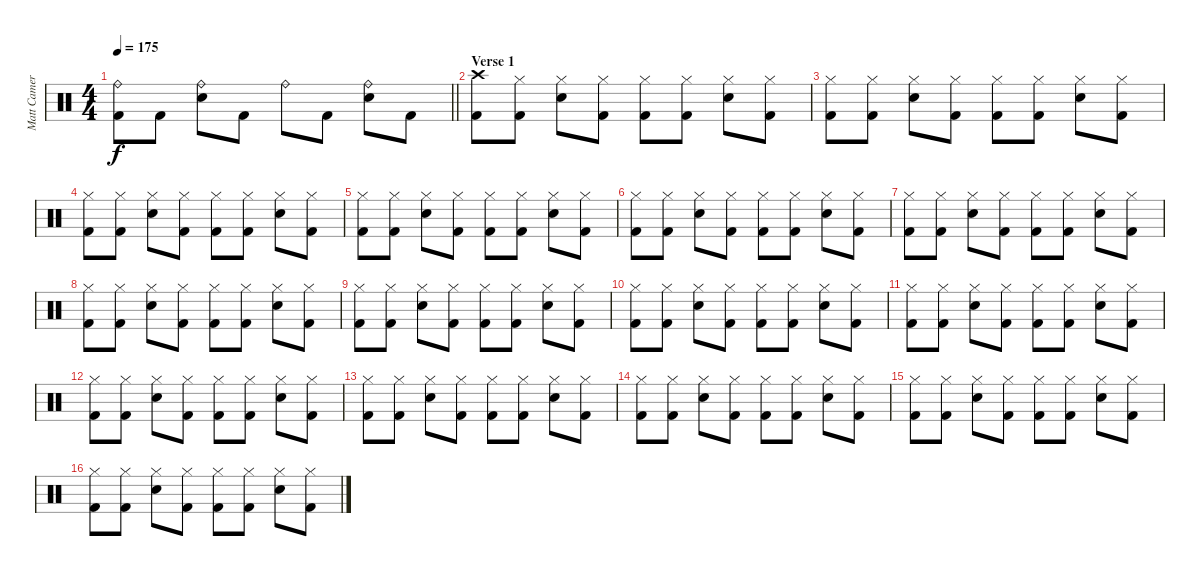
\track ("Matt Cameron" "Matt Camer") {instrument percussion}
\staff {score}
\articulation defaults
\ts (4 4)
\tempo 175
\clef neutral
\barLineRight lightlight
\ks c
("Ride (bell)" "Kick (hit) 2").8{dy f} "Kick (hit) 2".8 ("Ride (bell)" "Electric Snare (hit)").8 "Kick (hit) 2".8 "Ride (bell)".8 "Kick (hit) 2".8 ("Ride (bell)" "Electric Snare (hit)").8 "Kick (hit) 2".8 |
\section ("" "Verse 1")
("Crash high (hit)" "Kick (hit) 2").8 ("Hi-Hat (closed)" "Kick (hit) 2").8 ("Hi-Hat (closed)" "Electric Snare (hit)").8 ("Hi-Hat (closed)" "Kick (hit) 2").8 ("Hi-Hat (closed)" "Kick (hit) 2").8 ("Hi-Hat (closed)" "Kick (hit) 2").8 ("Hi-Hat (closed)" "Electric Snare (hit)").8 ("Hi-Hat (closed)" "Kick (hit) 2").8 |
("Hi-Hat (closed)" "Kick (hit) 2").8 ("Hi-Hat (closed)" "Kick (hit) 2").8 ("Hi-Hat (closed)" "Electric Snare (hit)").8 ("Hi-Hat (closed)" "Kick (hit) 2").8 ("Hi-Hat (closed)" "Kick (hit) 2").8 ("Hi-Hat (closed)" "Kick (hit) 2").8 ("Hi-Hat (closed)" "Electric Snare (hit)").8 ("Hi-Hat (closed)" "Kick (hit) 2").8 |
("Hi-Hat (closed)" "Kick (hit) 2").8 ("Hi-Hat (closed)" "Kick (hit) 2").8 ("Hi-Hat (closed)" "Electric Snare (hit)").8 ("Hi-Hat (closed)" "Kick (hit) 2").8 ("Hi-Hat (closed)" "Kick (hit) 2").8 ("Hi-Hat (closed)" "Kick (hit) 2").8 ("Hi-Hat (closed)" "Electric Snare (hit)").8 ("Hi-Hat (closed)" "Kick (hit) 2").8 |
("Hi-Hat (closed)" "Kick (hit) 2").8 ("Hi-Hat (closed)" "Kick (hit) 2").8 ("Hi-Hat (closed)" "Electric Snare (hit)").8 ("Hi-Hat (closed)" "Kick (hit) 2").8 ("Hi-Hat (closed)" "Kick (hit) 2").8 ("Hi-Hat (closed)" "Kick (hit) 2").8 ("Hi-Hat (closed)" "Electric Snare (hit)").8 ("Hi-Hat (closed)" "Kick (hit) 2").8 |
("Hi-Hat (closed)" "Kick (hit) 2").8 ("Hi-Hat (closed)" "Kick (hit) 2").8 ("Hi-Hat (closed)" "Electric Snare (hit)").8 ("Hi-Hat (closed)" "Kick (hit) 2").8 ("Hi-Hat (closed)" "Kick (hit) 2").8 ("Hi-Hat (closed)" "Kick (hit) 2").8 ("Hi-Hat (closed)" "Electric Snare (hit)").8 ("Hi-Hat (closed)" "Kick (hit) 2").8 |
("Hi-Hat (closed)" "Kick (hit) 2").8 ("Hi-Hat (closed)" "Kick (hit) 2").8 ("Hi-Hat (closed)" "Electric Snare (hit)").8 ("Hi-Hat (closed)" "Kick (hit) 2").8 ("Hi-Hat (closed)" "Kick (hit) 2").8 ("Hi-Hat (closed)" "Kick (hit) 2").8 ("Hi-Hat (closed)" "Electric Snare (hit)").8 ("Hi-Hat (closed)" "Kick (hit) 2").8 |
("Hi-Hat (closed)" "Kick (hit) 2").8 ("Hi-Hat (closed)" "Kick (hit) 2").8 ("Hi-Hat (closed)" "Electric Snare (hit)").8 ("Hi-Hat (closed)" "Kick (hit) 2").8 ("Hi-Hat (closed)" "Kick (hit) 2").8 ("Hi-Hat (closed)" "Kick (hit) 2").8 ("Hi-Hat (closed)" "Electric Snare (hit)").8 ("Hi-Hat (closed)" "Kick (hit) 2").8 |
("Hi-Hat (closed)" "Kick (hit) 2").8 ("Hi-Hat (closed)" "Kick (hit) 2").8 ("Hi-Hat (closed)" "Electric Snare (hit)").8 ("Hi-Hat (closed)" "Kick (hit) 2").8 ("Hi-Hat (closed)" "Kick (hit) 2").8 ("Hi-Hat (closed)" "Kick (hit) 2").8 ("Hi-Hat (closed)" "Electric Snare (hit)").8 ("Hi-Hat (closed)" "Kick (hit) 2").8 |
("Hi-Hat (closed)" "Kick (hit) 2").8 ("Hi-Hat (closed)" "Kick (hit) 2").8 ("Hi-Hat (closed)" "Electric Snare (hit)").8 ("Hi-Hat (closed)" "Kick (hit) 2").8 ("Hi-Hat (closed)" "Kick (hit) 2").8 ("Hi-Hat (closed)" "Kick (hit) 2").8 ("Hi-Hat (closed)" "Electric Snare (hit)").8 ("Hi-Hat (closed)" "Kick (hit) 2").8 |
("Hi-Hat (closed)" "Kick (hit) 2").8 ("Hi-Hat (closed)" "Kick (hit) 2").8 ("Hi-Hat (closed)" "Electric Snare (hit)").8 ("Hi-Hat (closed)" "Kick (hit) 2").8 ("Hi-Hat (closed)" "Kick (hit) 2").8 ("Hi-Hat (closed)" "Kick (hit) 2").8 ("Hi-Hat (closed)" "Electric Snare (hit)").8 ("Hi-Hat (closed)" "Kick (hit) 2").8 |
("Hi-Hat (closed)" "Kick (hit) 2").8 ("Hi-Hat (closed)" "Kick (hit) 2").8 ("Hi-Hat (closed)" "Electric Snare (hit)").8 ("Hi-Hat (closed)" "Kick (hit) 2").8 ("Hi-Hat (closed)" "Kick (hit) 2").8 ("Hi-Hat (closed)" "Kick (hit) 2").8 ("Hi-Hat (closed)" "Electric Snare (hit)").8 ("Hi-Hat (closed)" "Kick (hit) 2").8 |
("Hi-Hat (closed)" "Kick (hit) 2").8 ("Hi-Hat (closed)" "Kick (hit) 2").8 ("Hi-Hat (closed)" "Electric Snare (hit)").8 ("Hi-Hat (closed)" "Kick (hit) 2").8 ("Hi-Hat (closed)" "Kick (hit) 2").8 ("Hi-Hat (closed)" "Kick (hit) 2").8 ("Hi-Hat (closed)" "Electric Snare (hit)").8 ("Hi-Hat (closed)" "Kick (hit) 2").8 |
("Hi-Hat (closed)" "Kick (hit) 2").8 ("Hi-Hat (closed)" "Kick (hit) 2").8 ("Hi-Hat (closed)" "Electric Snare (hit)").8 ("Hi-Hat (closed)" "Kick (hit) 2").8 ("Hi-Hat (closed)" "Kick (hit) 2").8 ("Hi-Hat (closed)" "Kick (hit) 2").8 ("Hi-Hat (closed)" "Electric Snare (hit)").8 ("Hi-Hat (closed)" "Kick (hit) 2").8 |
("Hi-Hat (closed)" "Kick (hit) 2").8 ("Hi-Hat (closed)" "Kick (hit) 2").8 ("Hi-Hat (closed)" "Electric Snare (hit)").8 ("Hi-Hat (closed)" "Kick (hit) 2").8 ("Hi-Hat (closed)" "Kick (hit) 2").8 ("Hi-Hat (closed)" "Kick (hit) 2").8 ("Hi-Hat (closed)" "Electric Snare (hit)").8 ("Hi-Hat (closed)" "Kick (hit) 2").8 |
("Hi-Hat (closed)" "Kick (hit) 2").8 ("Hi-Hat (closed)" "Kick (hit) 2").8 ("Hi-Hat (closed)" "Electric Snare (hit)").8 ("Hi-Hat (closed)" "Kick (hit) 2").8 ("Hi-Hat (closed)" "Kick (hit) 2").8 ("Hi-Hat (closed)" "Kick (hit) 2").8 ("Hi-Hat (closed)" "Electric Snare (hit)").8 ("Hi-Hat (closed)" "Kick (hit) 2").8
